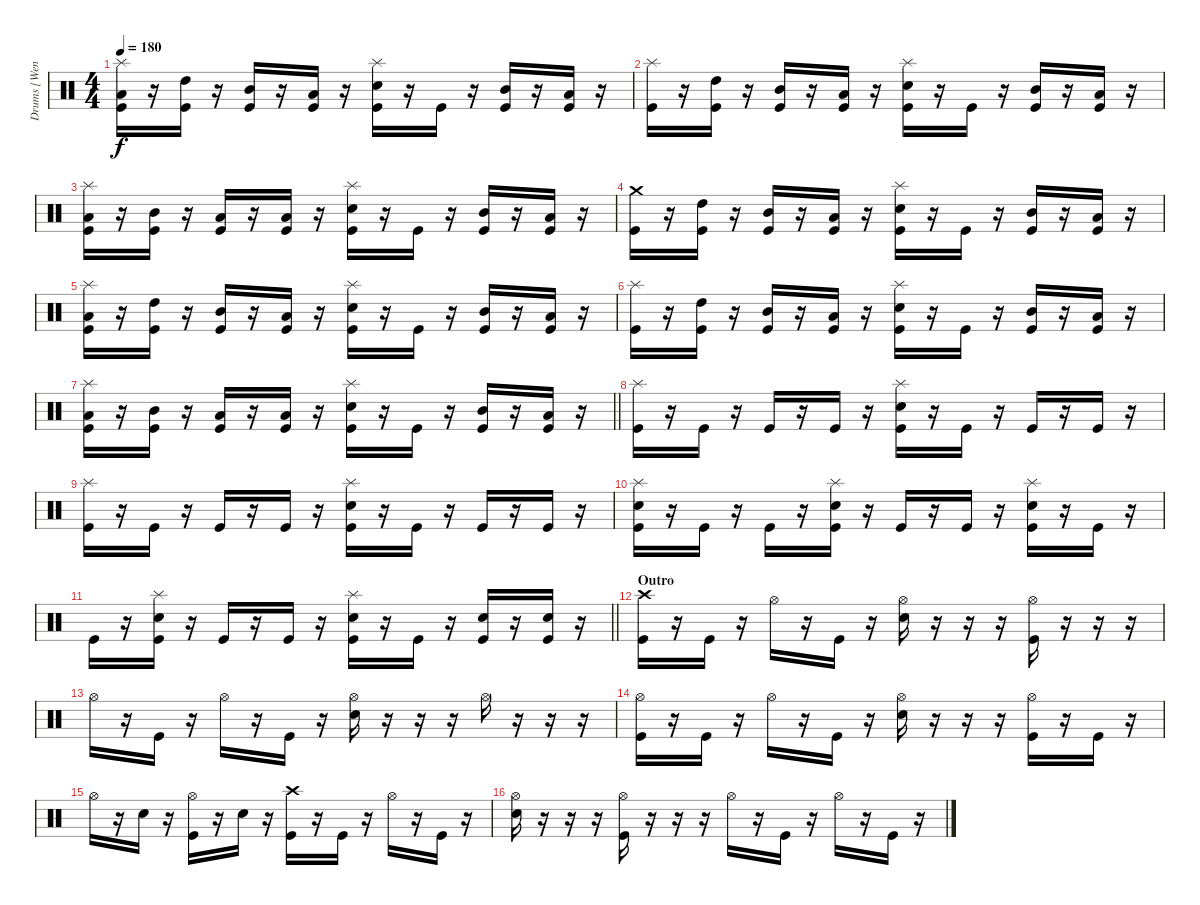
\track ("Drums [Wengren]" "Drums [Wen") {instrument percussion}
\staff {score}
\articulation defaults
\ts (4 4)
\tempo 180
\clef neutral
\ks c
("Splash (hit)" "Low Floor Tom (hit)" "Kick (hit)").16{dy f} r.16 ("High Tom (hit)" "Kick (hit)").16 r.16 ("Mid Tom (hit)" "Kick (hit)").16 r.16 ("Low Tom (hit)" "Kick (hit)").16 r.16 ("Splash (hit)" "Electric Snare (hit)" "Kick (hit)").16 r.16 "Kick (hit)".16 r.16 ("Mid Tom (hit)" "Kick (hit)").16 r.16 ("Low Tom (hit)" "Kick (hit)").16 r.16 |
("Splash (hit)" "Kick (hit)").16 r.16 ("High Tom (hit)" "Kick (hit)").16 r.16 ("Mid Tom (hit)" "Kick (hit)").16 r.16 ("Low Tom (hit)" "Kick (hit)").16 r.16 ("Splash (hit)" "Electric Snare (hit)" "Kick (hit)").16 r.16 "Kick (hit)".16 r.16 ("Mid Tom (hit)" "Kick (hit)").16 r.16 ("Low Tom (hit)" "Kick (hit)").16 r.16 |
("Splash (hit)" "Low Floor Tom (hit)" "Kick (hit)").16 r.16 ("Mid Tom (hit)" "Kick (hit)").16 r.16 ("Low Tom (hit)" "Kick (hit)").16 r.16 ("Low Floor Tom (hit)" "Kick (hit)").16 r.16 ("Splash (hit)" "Electric Snare (hit)" "Kick (hit)").16 r.16 "Kick (hit)".16 r.16 ("Mid Tom (hit)" "Kick (hit)").16 r.16 ("Low Floor Tom (hit)" "Kick (hit)").16 r.16 |
("Crash medium (hit)" "Kick (hit)").16 r.16 ("High Tom (hit)" "Kick (hit)").16 r.16 ("Mid Tom (hit)" "Kick (hit)").16 r.16 ("Low Tom (hit)" "Kick (hit)").16 r.16 ("Splash (hit)" "Electric Snare (hit)" "Kick (hit)").16 r.16 "Kick (hit)".16 r.16 ("Mid Tom (hit)" "Kick (hit)").16 r.16 ("Low Tom (hit)" "Kick (hit)").16 r.16 |
("Splash (hit)" "Low Floor Tom (hit)" "Kick (hit)").16 r.16 ("High Tom (hit)" "Kick (hit)").16 r.16 ("Mid Tom (hit)" "Kick (hit)").16 r.16 ("Low Tom (hit)" "Kick (hit)").16 r.16 ("Splash (hit)" "Electric Snare (hit)" "Kick (hit)").16 r.16 "Kick (hit)".16 r.16 ("Mid Tom (hit)" "Kick (hit)").16 r.16 ("Low Tom (hit)" "Kick (hit)").16 r.16 |
("Splash (hit)" "Kick (hit)").16 r.16 ("High Tom (hit)" "Kick (hit)").16 r.16 ("Mid Tom (hit)" "Kick (hit)").16 r.16 ("Low Tom (hit)" "Kick (hit)").16 r.16 ("Splash (hit)" "Electric Snare (hit)" "Kick (hit)").16 r.16 "Kick (hit)".16 r.16 ("Mid Tom (hit)" "Kick (hit)").16 r.16 ("Low Tom (hit)" "Kick (hit)").16 r.16 |
\barLineRight lightlight
("Splash (hit)" "Low Floor Tom (hit)" "Kick (hit)").16 r.16 ("Mid Tom (hit)" "Kick (hit)").16 r.16 ("Low Tom (hit)" "Kick (hit)").16 r.16 ("Low Floor Tom (hit)" "Kick (hit)").16 r.16 ("Splash (hit)" "Electric Snare (hit)" "Kick (hit)").16 r.16 "Kick (hit)".16 r.16 ("Mid Tom (hit)" "Kick (hit)").16 r.16 ("Low Floor Tom (hit)" "Kick (hit)").16 r.16 |
("Splash (hit)" "Kick (hit)").16 r.16 "Kick (hit)".16 r.16 "Kick (hit)".16 r.16 "Kick (hit)".16 r.16 ("Splash (hit)" "Electric Snare (hit)" "Kick (hit)").16 r.16 "Kick (hit)".16 r.16 "Kick (hit)".16 r.16 "Kick (hit)".16 r.16 |
("Splash (hit)" "Kick (hit)").16 r.16 "Kick (hit)".16 r.16 "Kick (hit)".16 r.16 "Kick (hit)".16 r.16 ("Splash (hit)" "Electric Snare (hit)" "Kick (hit)").16 r.16 "Kick (hit)".16 r.16 "Kick (hit)".16 r.16 "Kick (hit)".16 r.16 |
("Splash (hit)" "Electric Snare (hit)" "Kick (hit)").16 r.16 "Kick (hit)".16 r.16 "Kick (hit)".16 r.16 ("Splash (hit)" "Electric Snare (hit)" "Kick (hit)").16 r.16 "Kick (hit)".16 r.16 "Kick (hit)".16 r.16 ("Splash (hit)" "Electric Snare (hit)" "Kick (hit)").16 r.16 "Kick (hit)".16 r.16 |
\barLineRight lightlight "Kick (hit)".16
r.16 ("Splash (hit)" "Electric Snare (hit)" "Kick (hit)").16 r.16 "Kick (hit)".16 r.16 "Kick (hit)".16 r.16 ("Splash (hit)" "Electric Snare (hit)" "Kick (hit)").16 r.16 "Kick (hit)".16 r.16 ("Electric Snare (hit)" "Kick (hit)").16 r.16 ("Electric Snare (hit)" "Kick (hit)").16 r.16 |
\section ("" "Outro")
("Crash high (hit)" "Kick (hit)").16 r.16 "Kick (hit)".16 r.16 "Hi-Hat (open)".16 r.16 "Kick (hit)".16 r.16 ("Hi-Hat (open)" "Electric Snare (hit)").16 r.16 r.16 r.16 ("Hi-Hat (open)" "Kick (hit)").16 r.16 r.16 r.16 |
"Hi-Hat (open)".16 r.16 "Kick (hit)".16 r.16 "Hi-Hat (open)".16 r.16 "Kick (hit)".16 r.16 ("Hi-Hat (open)" "Electric Snare (hit)").16 r.16 r.16 r.16 "Hi-Hat (open)".16 r.16 r.16 r.16 |
("Hi-Hat (open)" "Kick (hit)").16 r.16 "Kick (hit)".16 r.16 "Hi-Hat (open)".16 r.16 "Kick (hit)".16 r.16 ("Hi-Hat (open)" "Electric Snare (hit)").16 r.16 r.16 r.16 ("Hi-Hat (open)" "Kick (hit)").16 r.16 "Kick (hit)".16 r.16 |
"Hi-Hat (open)".16 r.16 "Electric Snare (hit)".16 r.16 ("Hi-Hat (open)" "Kick (hit)").16 r.16 "Electric Snare (hit)".16 r.16 ("Crash high (hit)" "Kick (hit)").16 r.16 "Kick (hit)".16 r.16 "Hi-Hat (open)".16 r.16 "Kick (hit)".16 r.16 |
("Hi-Hat (open)" "Electric Snare (hit)").16 r.16 r.16 r.16 ("Hi-Hat (open)" "Kick (hit)").16 r.16 r.16 r.16 "Hi-Hat (open)".16 r.16 "Kick (hit)".16 r.16 "Hi-Hat (open)".16 r.16 "Kick (hit)".16 r.16
